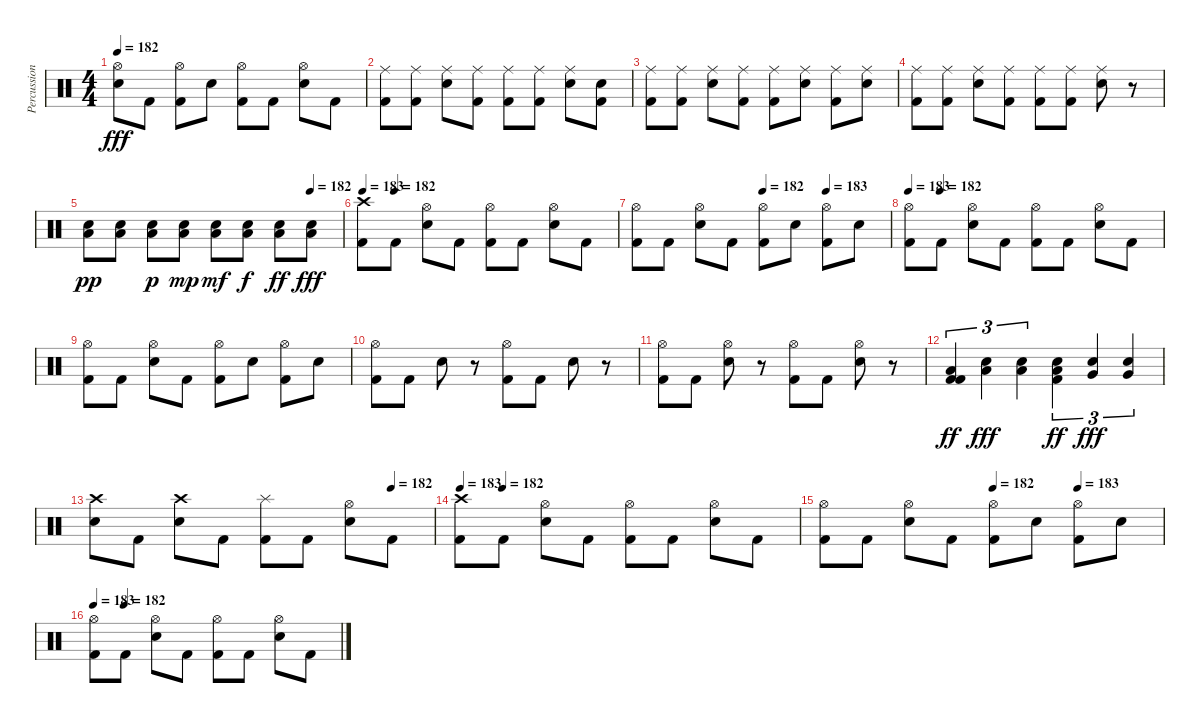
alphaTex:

\track ("Percussion" "Percussion") {instrument percussion}
\staff {score}
\articulation defaults
\ts (4 4)
\tempo 182
\clef neutral
\ks c
("Hi-Hat (open)" "Snare (hit) 2").8{dy fff} "Kick (hit) 2".8 ("Hi-Hat (open)" "Kick (hit) 2").8 "Snare (hit) 2".8 ("Hi-Hat (open)" "Kick (hit) 2").8 "Kick (hit) 2".8 ("Hi-Hat (open)" "Snare (hit) 2").8 "Kick (hit) 2".8 |
("Ride (middle)" "Kick (hit) 2").8 ("Ride (middle)" "Kick (hit) 2").8 ("Ride (middle)" "Snare (hit) 2").8 ("Ride (middle)" "Kick (hit) 2").8 ("Ride (middle)" "Kick (hit) 2").8 ("Ride (middle)" "Kick (hit) 2").8 ("Ride (middle)" "Snare (hit) 2").8 ("Snare (hit)" "Kick (hit) 2").8 |
("Ride (middle)" "Kick (hit) 2").8 ("Ride (middle)" "Kick (hit) 2").8 ("Ride (middle)" "Snare (hit) 2").8 ("Ride (middle)" "Kick (hit) 2").8 ("Ride (middle)" "Kick (hit) 2").8 ("Ride (middle)" "Snare (hit) 2").8 ("Ride (middle)" "Kick (hit) 2").8 ("Ride (middle)" "Snare (hit) 2").8 |
("Ride (middle)" "Kick (hit) 2").8 ("Ride (middle)" "Kick (hit) 2").8 ("Ride (middle)" "Snare (hit) 2").8 ("Ride (middle)" "Kick (hit) 2").8 ("Ride (middle)" "Kick (hit) 2").8 ("Ride (middle)" "Kick (hit) 2").8 ("Ride (middle)" "Snare (hit) 2").8 r.8 |
\tempo (182 0.875)
("Snare (hit) 2" "Low Floor Tom (hit)").8{dy pp} ("Snare (hit) 2" "Low Floor Tom (hit)").8 ("Snare (hit) 2" "Low Floor Tom (hit)").8{dy p} ("Snare (hit) 2" "Low Floor Tom (hit)").8{dy mp} ("Snare (hit) 2" "Low Floor Tom (hit)").8{dy mf} ("Snare (hit) 2" "Low Floor Tom (hit)").8{dy f} ("Snare (hit) 2" "Low Floor Tom (hit)").8{dy ff} ("Snare (hit) 2" "Low Floor Tom (hit)").8{dy fff} |
\tempo 183
\tempo (182 0.125)
("Crash high (hit)" "Kick (hit) 2").8 "Kick (hit) 2".8 ("Hi-Hat (open)" "Snare (hit) 2").8 "Kick (hit) 2".8 ("Hi-Hat (open)" "Kick (hit) 2").8 "Kick (hit) 2".8 ("Hi-Hat (open)" "Snare (hit) 2").8 "Kick (hit) 2".8 |
\tempo (182 0.5)
\tempo (183 0.75)
("Hi-Hat (open)" "Kick (hit) 2").8 "Kick (hit) 2".8 ("Hi-Hat (open)" "Snare (hit) 2").8 "Kick (hit) 2".8 ("Hi-Hat (open)" "Kick (hit) 2").8 "Snare (hit) 2".8 ("Hi-Hat (open)" "Kick (hit) 2").8 "Snare (hit) 2".8 |
\tempo 183
\tempo (182 0.125)
("Hi-Hat (open)" "Kick (hit) 2").8 "Kick (hit) 2".8 ("Hi-Hat (open)" "Snare (hit) 2").8 "Kick (hit) 2".8 ("Hi-Hat (open)" "Kick (hit) 2").8 "Kick (hit) 2".8 ("Hi-Hat (open)" "Snare (hit) 2").8 "Kick (hit) 2".8 |
("Hi-Hat (open)" "Kick (hit) 2").8 "Kick (hit) 2".8 ("Hi-Hat (open)" "Snare (hit) 2").8 "Kick (hit) 2".8 ("Hi-Hat (open)" "Kick (hit) 2").8 "Snare (hit) 2".8 ("Hi-Hat (open)" "Kick (hit) 2").8 "Snare (hit) 2".8 |
("Hi-Hat (open)" "Kick (hit) 2").8 "Kick (hit) 2".8 "Snare (hit) 2".8 r.8 ("Hi-Hat (open)" "Kick (hit) 2").8 "Kick (hit) 2".8 "Snare (hit) 2".8 r.8 |
("Hi-Hat (open)" "Kick (hit) 2").8 "Kick (hit) 2".8 ("Hi-Hat (open)" "Snare (hit) 2").8 r.8 ("Hi-Hat (open)" "Kick (hit) 2").8 "Kick (hit) 2".8 ("Hi-Hat (open)" "Snare (hit) 2").8 r.8 |
("Low Floor Tom (hit)" "Kick (hit) 2" "Kick (hit) 2").4{tu (3 2) dy ff} ("Low Tom (hit)" "Snare (hit) 2").4{tu (3 2) dy fff} ("Low Tom (hit)" "Snare (hit) 2").4{tu (3 2)} ("Low Floor Tom (hit)" "Snare (hit) 2" "Kick (hit) 2").4{tu (3 2) dy ff} ("Very Low Tom (hit)" "Snare (hit) 2").4{tu (3 2) dy fff} ("Very Low Tom (hit)" "Snare (hit) 2").4{tu (3 2)} |
\tempo (182 0.875)
("Crash high (hit)" "Snare (hit) 2").8 "Kick (hit) 2".8 ("Crash high (hit)" "Snare (hit) 2").8 "Kick (hit) 2".8 ("Splash (hit)" "Kick (hit) 2").8 "Kick (hit) 2".8 ("Hi-Hat (open)" "Snare (hit) 2").8 "Kick (hit) 2".8 |
\tempo 183
\tempo (182 0.125)
("Crash high (hit)" "Kick (hit) 2").8 "Kick (hit) 2".8 ("Hi-Hat (open)" "Snare (hit) 2").8 "Kick (hit) 2".8 ("Hi-Hat (open)" "Kick (hit) 2").8 "Kick (hit) 2".8 ("Hi-Hat (open)" "Snare (hit) 2").8 "Kick (hit) 2".8 |
\tempo (182 0.5)
\tempo (183 0.75)
("Hi-Hat (open)" "Kick (hit) 2").8 "Kick (hit) 2".8 ("Hi-Hat (open)" "Snare (hit) 2").8 "Kick (hit) 2".8 ("Hi-Hat (open)" "Kick (hit) 2").8 "Snare (hit) 2".8 ("Hi-Hat (open)" "Kick (hit) 2").8 "Snare (hit) 2".8 |
\tempo 183
\tempo (182 0.125)
("Hi-Hat (open)" "Kick (hit) 2").8 "Kick (hit) 2".8 ("Hi-Hat (open)" "Snare (hit) 2").8 "Kick (hit) 2".8 ("Hi-Hat (open)" "Kick (hit) 2").8 "Kick (hit) 2".8 ("Hi-Hat (open)" "Snare (hit) 2").8 "Kick (hit) 2".8
